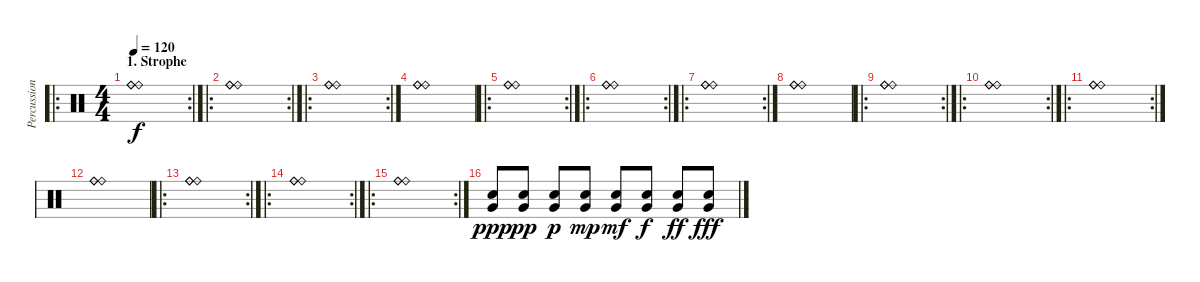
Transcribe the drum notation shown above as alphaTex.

\track ("Percussion" "Percussion") {instrument percussion}
\staff {score}
\articulation defaults
\ro
\rc 2
\ts (4 4)
\section ("" "1. Strophe")
\tempo 120
\clef neutral
\ks c
("Ride (bell)" "Ride (bell)" "Ride (bell)").1{dy f} |
\ro
\rc 2
("Ride (bell)" "Ride (bell)" "Ride (bell)").1 |
\ro
\rc 2
("Ride (bell)" "Ride (bell)" "Ride (bell)").1 |
("Ride (bell)" "Ride (bell)" "Ride (bell)").1 |
\ro
\rc 2
("Ride (bell)" "Ride (bell)" "Ride (bell)").1 |
\ro
\rc 2
("Ride (bell)" "Ride (bell)" "Ride (bell)").1 |
\ro
\rc 2
("Ride (bell)" "Ride (bell)" "Ride (bell)").1 |
("Ride (bell)" "Ride (bell)" "Ride (bell)").1 |
\ro
\rc 2
("Ride (bell)" "Ride (bell)" "Ride (bell)").1 |
\ro
\rc 2
("Ride (bell)" "Ride (bell)" "Ride (bell)").1 |
\ro
\rc 2
("Ride (bell)" "Ride (bell)" "Ride (bell)").1 |
("Ride (bell)" "Ride (bell)" "Ride (bell)").1 |
\ro
\rc 2
("Ride (bell)" "Ride (bell)" "Ride (bell)").1 |
\ro
\rc 2
("Ride (bell)" "Ride (bell)" "Ride (bell)").1 |
\ro
\rc 2
("Ride (bell)" "Ride (bell)" "Ride (bell)").1 |
("Very Low Tom (hit)" "Snare (hit) 2").8{dy ppp} ("Very Low Tom (hit)" "Snare (hit) 2").8{dy pp} ("Very Low Tom (hit)" "Snare (hit) 2").8{dy p} ("Very Low Tom (hit)" "Snare (hit) 2").8{dy mp} ("Very Low Tom (hit)" "Snare (hit) 2").8{dy mf} ("Very Low Tom (hit)" "Snare (hit) 2").8{dy f} ("Very Low Tom (hit)" "Snare (hit) 2").8{dy ff} ("Very Low Tom (hit)" "Snare (hit) 2").8{dy fff}
